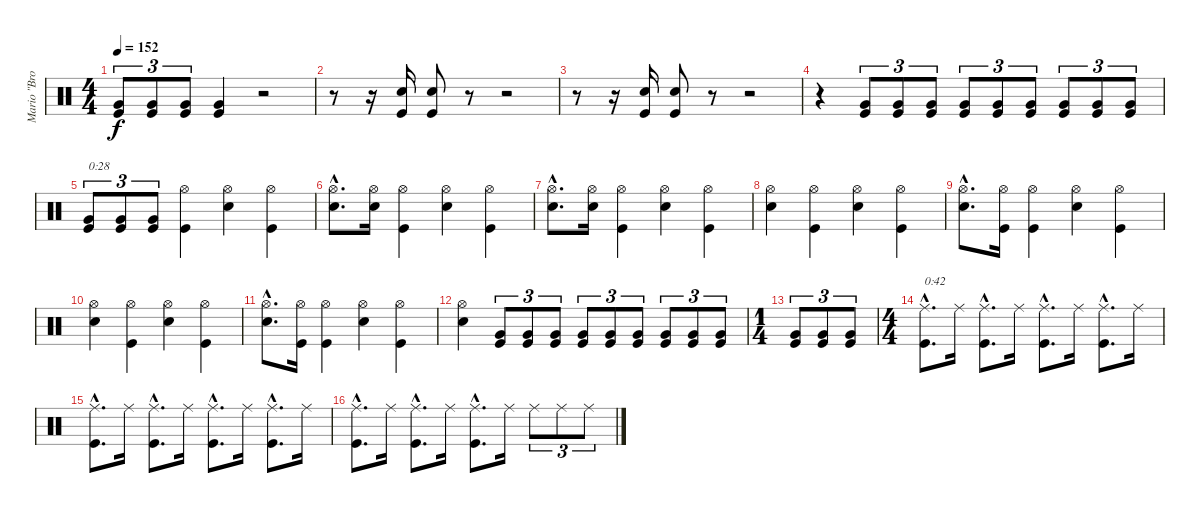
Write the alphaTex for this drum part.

\track ("Mario \"Bros\" Carvajal" "Mario \"Bro") {instrument percussion}
\staff {score}
\articulation defaults
\ts (4 4)
\tempo 152
\clef neutral
\ks c
("Kick (hit)" "Very Low Tom (hit)").8{tu (3 2) dy f} ("Kick (hit)" "Very Low Tom (hit)").8{tu (3 2)} ("Kick (hit)" "Very Low Tom (hit)").8{tu (3 2)} ("Kick (hit)" "Very Low Tom (hit)").4 r.2 |
r.8 r.16 ("Kick (hit)" "Snare (hit) 2").16 ("Kick (hit)" "Snare (hit) 2").8 r.8 r.2 |
r.8 r.16 ("Kick (hit)" "Snare (hit) 2").16 ("Kick (hit)" "Snare (hit) 2").8 r.8 r.2 |
r.4 ("Kick (hit)" "Very Low Tom (hit)").8{tu (3 2)} ("Kick (hit)" "Very Low Tom (hit)").8{tu (3 2)} ("Kick (hit)" "Very Low Tom (hit)").8{tu (3 2)} ("Kick (hit)" "Very Low Tom (hit)").8{tu (3 2)} ("Kick (hit)" "Very Low Tom (hit)").8{tu (3 2)} ("Kick (hit)" "Very Low Tom (hit)").8{tu (3 2)} ("Kick (hit)" "Very Low Tom (hit)").8{tu (3 2)} ("Kick (hit)" "Very Low Tom (hit)").8{tu (3 2)} ("Kick (hit)" "Very Low Tom (hit)").8{tu (3 2)} |
("Kick (hit)" "Very Low Tom (hit)").8{tu (3 2) txt "0:28"} ("Kick (hit)" "Very Low Tom (hit)").8{tu (3 2)} ("Kick (hit)" "Very Low Tom (hit)").8{tu (3 2)} ("Kick (hit)" "Hi-Hat (open)").4 ("Snare (hit) 2" "Hi-Hat (open)").4 ("Kick (hit)" "Hi-Hat (open)").4 |
("Snare (hit) 2"{hac} "Hi-Hat (open)"{hac}).8{d} ("Snare (hit) 2" "Hi-Hat (open)").16 ("Kick (hit)" "Hi-Hat (open)").4 ("Snare (hit) 2" "Hi-Hat (open)").4 ("Kick (hit)" "Hi-Hat (open)").4 |
("Snare (hit) 2"{hac} "Hi-Hat (open)"{hac}).8{d} ("Snare (hit) 2" "Hi-Hat (open)").16 ("Kick (hit)" "Hi-Hat (open)").4 ("Snare (hit) 2" "Hi-Hat (open)").4 ("Kick (hit)" "Hi-Hat (open)").4 |
("Snare (hit) 2" "Hi-Hat (open)").4 ("Kick (hit)" "Hi-Hat (open)").4 ("Snare (hit) 2" "Hi-Hat (open)").4 ("Kick (hit)" "Hi-Hat (open)").4 |
("Snare (hit) 2"{hac} "Hi-Hat (open)"{hac}).8{d} ("Kick (hit)" "Hi-Hat (open)").16 ("Kick (hit)" "Hi-Hat (open)").4 ("Snare (hit) 2" "Hi-Hat (open)").4 ("Kick (hit)" "Hi-Hat (open)").4 |
("Snare (hit) 2" "Hi-Hat (open)").4 ("Kick (hit)" "Hi-Hat (open)").4 ("Snare (hit) 2" "Hi-Hat (open)").4 ("Kick (hit)" "Hi-Hat (open)").4 |
("Snare (hit) 2"{hac} "Hi-Hat (open)"{hac}).8{d} ("Kick (hit)" "Hi-Hat (open)").16 ("Kick (hit)" "Hi-Hat (open)").4 ("Snare (hit) 2" "Hi-Hat (open)").4 ("Kick (hit)" "Hi-Hat (open)").4 |
("Snare (hit) 2" "Hi-Hat (open)").4 ("Kick (hit)" "Very Low Tom (hit)").8{tu (3 2)} ("Kick (hit)" "Very Low Tom (hit)").8{tu (3 2)} ("Kick (hit)" "Very Low Tom (hit)").8{tu (3 2)} ("Kick (hit)" "Very Low Tom (hit)").8{tu (3 2)} ("Kick (hit)" "Very Low Tom (hit)").8{tu (3 2)} ("Kick (hit)" "Very Low Tom (hit)").8{tu (3 2)} ("Kick (hit)" "Very Low Tom (hit)").8{tu (3 2)} ("Kick (hit)" "Very Low Tom (hit)").8{tu (3 2)} ("Kick (hit)" "Very Low Tom (hit)").8{tu (3 2)} |
\ts (1 4)
("Kick (hit)" "Very Low Tom (hit)").8{tu (3 2)} ("Kick (hit)" "Very Low Tom (hit)").8{tu (3 2)} ("Kick (hit)" "Very Low Tom (hit)").8{tu (3 2)} |
\ts (4 4)
("Kick (hit)"{hac} "Ride (middle)"{hac}).8{d txt "0:42"} "Ride (middle)".16 ("Kick (hit)"{hac} "Ride (middle)"{hac}).8{d} "Ride (middle)".16 ("Kick (hit)"{hac} "Ride (middle)"{hac}).8{d} "Ride (middle)".16 ("Kick (hit)"{hac} "Ride (middle)"{hac}).8{d} "Ride (middle)".16 |
("Kick (hit)"{hac} "Ride (middle)"{hac}).8{d} "Ride (middle)".16 ("Kick (hit)"{hac} "Ride (middle)"{hac}).8{d} "Ride (middle)".16 ("Kick (hit)"{hac} "Ride (middle)"{hac}).8{d} "Ride (middle)".16 ("Kick (hit)"{hac} "Ride (middle)"{hac}).8{d} "Ride (middle)".16 |
("Kick (hit)"{hac} "Ride (middle)"{hac}).8{d} "Ride (middle)".16 ("Kick (hit)"{hac} "Ride (middle)"{hac}).8{d} "Ride (middle)".16 ("Kick (hit)"{hac} "Ride (middle)"{hac}).8{d} "Ride (middle)".16 "Ride (middle)".8{tu (3 2)} "Ride (middle)".8{tu (3 2)} "Ride (middle)".8{tu (3 2)}
